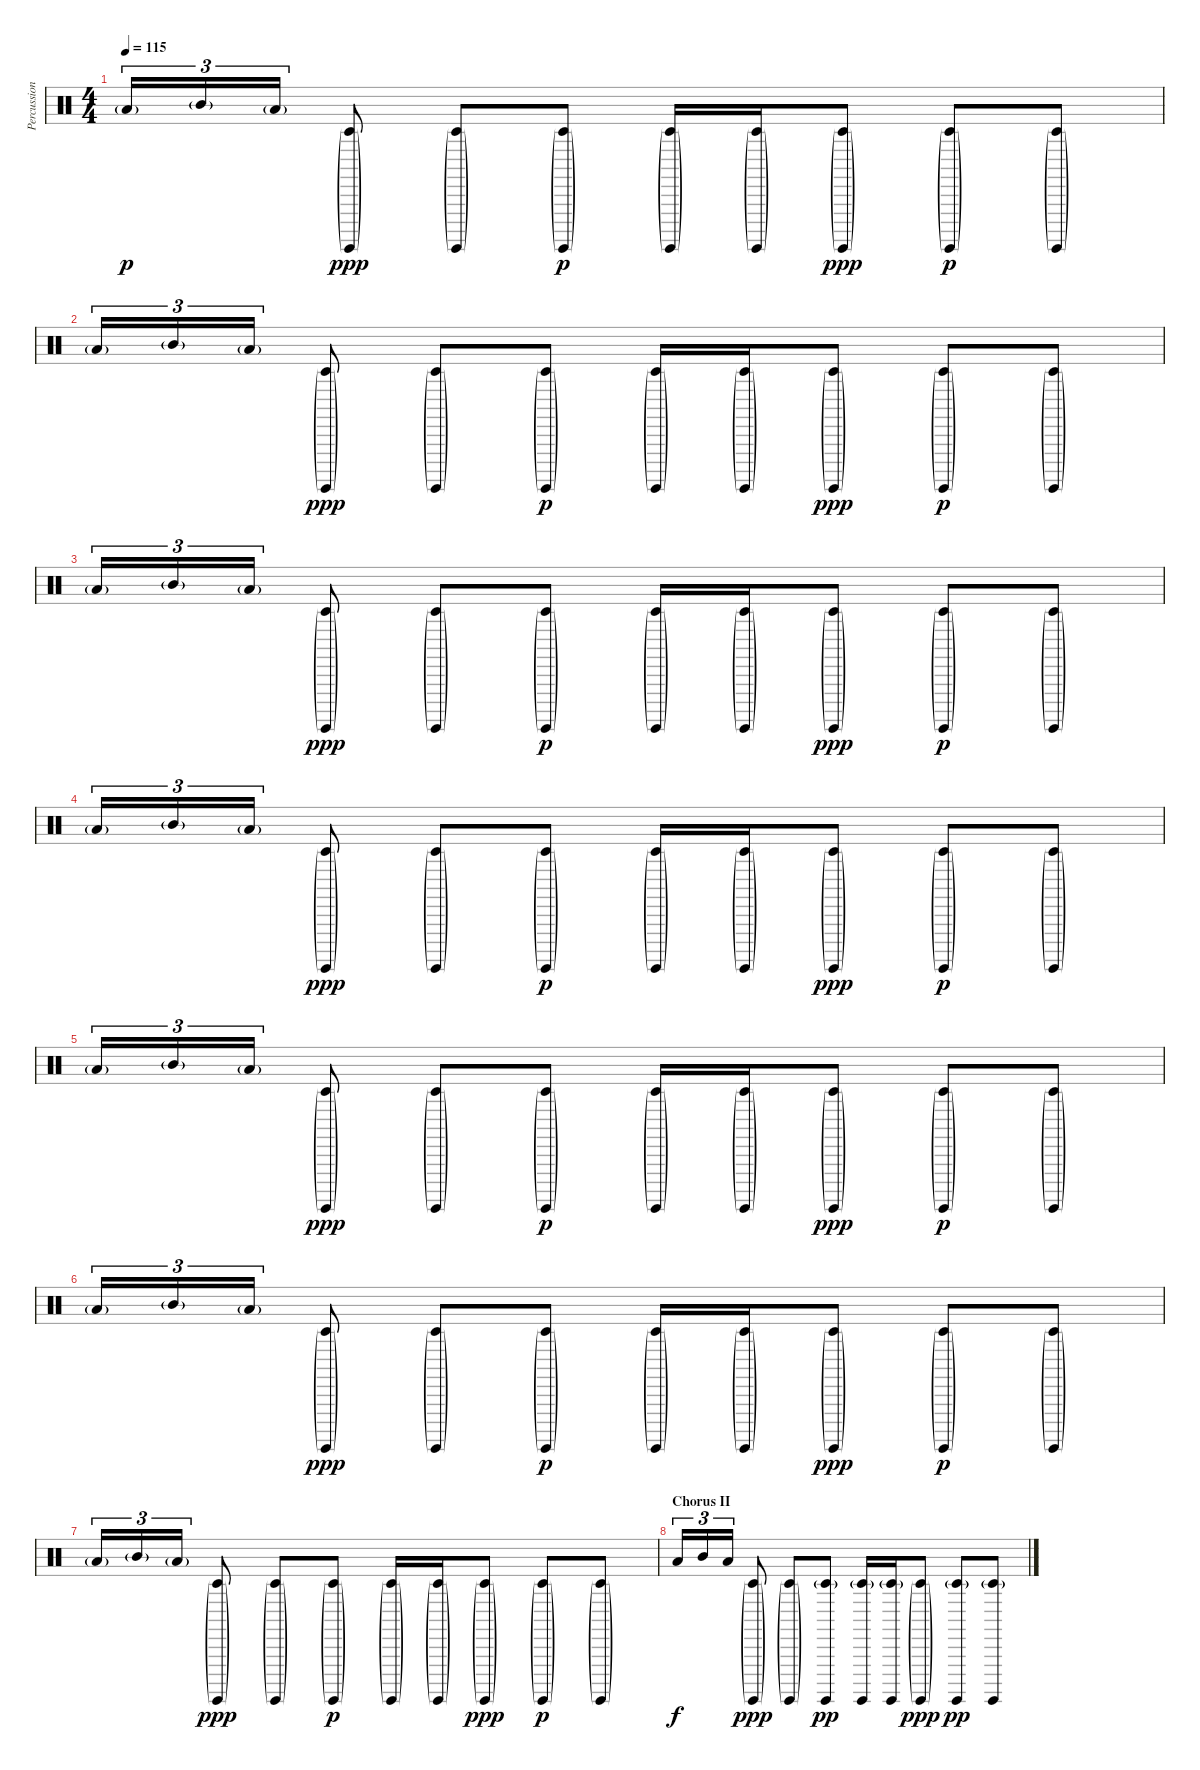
\track ("Percussion - Low Tom" "Percussion") {instrument percussion}
\staff {score}
\articulation defaults
\ts (4 4)
\tempo 115
\clef neutral
\ks c "Low Tom (hit)"{g}.16{tu (3 2) dy p} "Mid Tom (hit)"{g}.16{tu (3 2)} "Low Tom (hit)"{g}.16{tu (3 2)}
("Timbale low (hit)"{g} "Surdo (hit)"{g}).8{dy ppp} ("Timbale low (hit)"{g} "Surdo (hit)"{g}).8 ("Timbale low (hit)"{g} "Surdo (hit)"{g}).8{dy p} ("Timbale low (hit)"{g} "Surdo (hit)"{g}).16 ("Timbale low (hit)"{g} "Surdo (hit)"{g}).16 ("Timbale low (hit)"{g} "Surdo (hit)"{g}).8{dy ppp} ("Timbale low (hit)"{g} "Surdo (hit)"{g}).8{dy p} ("Timbale low (hit)"{g} "Surdo (hit)"{g}).8 |
"Low Tom (hit)"{g}.16{tu (3 2)} "Mid Tom (hit)"{g}.16{tu (3 2)} "Low Tom (hit)"{g}.16{tu (3 2)} ("Timbale low (hit)"{g} "Surdo (hit)"{g}).8{dy ppp} ("Timbale low (hit)"{g} "Surdo (hit)"{g}).8 ("Timbale low (hit)"{g} "Surdo (hit)"{g}).8{dy p} ("Timbale low (hit)"{g} "Surdo (hit)"{g}).16 ("Timbale low (hit)"{g} "Surdo (hit)"{g}).16 ("Timbale low (hit)"{g} "Surdo (hit)"{g}).8{dy ppp} ("Timbale low (hit)"{g} "Surdo (hit)"{g}).8{dy p} ("Timbale low (hit)"{g} "Surdo (hit)"{g}).8 |
"Low Tom (hit)"{g}.16{tu (3 2)} "Mid Tom (hit)"{g}.16{tu (3 2)} "Low Tom (hit)"{g}.16{tu (3 2)} ("Timbale low (hit)"{g} "Surdo (hit)"{g}).8{dy ppp} ("Timbale low (hit)"{g} "Surdo (hit)"{g}).8 ("Timbale low (hit)"{g} "Surdo (hit)"{g}).8{dy p} ("Timbale low (hit)"{g} "Surdo (hit)"{g}).16 ("Timbale low (hit)"{g} "Surdo (hit)"{g}).16 ("Timbale low (hit)"{g} "Surdo (hit)"{g}).8{dy ppp} ("Timbale low (hit)"{g} "Surdo (hit)"{g}).8{dy p} ("Timbale low (hit)"{g} "Surdo (hit)"{g}).8 |
"Low Tom (hit)"{g}.16{tu (3 2)} "Mid Tom (hit)"{g}.16{tu (3 2)} "Low Tom (hit)"{g}.16{tu (3 2)} ("Timbale low (hit)"{g} "Surdo (hit)"{g}).8{dy ppp} ("Timbale low (hit)"{g} "Surdo (hit)"{g}).8 ("Timbale low (hit)"{g} "Surdo (hit)"{g}).8{dy p} ("Timbale low (hit)"{g} "Surdo (hit)"{g}).16 ("Timbale low (hit)"{g} "Surdo (hit)"{g}).16 ("Timbale low (hit)"{g} "Surdo (hit)"{g}).8{dy ppp} ("Timbale low (hit)"{g} "Surdo (hit)"{g}).8{dy p} ("Timbale low (hit)"{g} "Surdo (hit)"{g}).8 |
"Low Tom (hit)"{g}.16{tu (3 2)} "Mid Tom (hit)"{g}.16{tu (3 2)} "Low Tom (hit)"{g}.16{tu (3 2)} ("Timbale low (hit)"{g} "Surdo (hit)"{g}).8{dy ppp} ("Timbale low (hit)"{g} "Surdo (hit)"{g}).8 ("Timbale low (hit)"{g} "Surdo (hit)"{g}).8{dy p} ("Timbale low (hit)"{g} "Surdo (hit)"{g}).16 ("Timbale low (hit)"{g} "Surdo (hit)"{g}).16 ("Timbale low (hit)"{g} "Surdo (hit)"{g}).8{dy ppp} ("Timbale low (hit)"{g} "Surdo (hit)"{g}).8{dy p} ("Timbale low (hit)"{g} "Surdo (hit)"{g}).8 |
"Low Tom (hit)"{g}.16{tu (3 2)} "Mid Tom (hit)"{g}.16{tu (3 2)} "Low Tom (hit)"{g}.16{tu (3 2)} ("Timbale low (hit)"{g} "Surdo (hit)"{g}).8{dy ppp} ("Timbale low (hit)"{g} "Surdo (hit)"{g}).8 ("Timbale low (hit)"{g} "Surdo (hit)"{g}).8{dy p} ("Timbale low (hit)"{g} "Surdo (hit)"{g}).16 ("Timbale low (hit)"{g} "Surdo (hit)"{g}).16 ("Timbale low (hit)"{g} "Surdo (hit)"{g}).8{dy ppp} ("Timbale low (hit)"{g} "Surdo (hit)"{g}).8{dy p} ("Timbale low (hit)"{g} "Surdo (hit)"{g}).8 |
"Low Tom (hit)"{g}.16{tu (3 2)} "Mid Tom (hit)"{g}.16{tu (3 2)} "Low Tom (hit)"{g}.16{tu (3 2)} ("Timbale low (hit)"{g} "Surdo (hit)"{g}).8{dy ppp} ("Timbale low (hit)"{g} "Surdo (hit)"{g}).8 ("Timbale low (hit)"{g} "Surdo (hit)"{g}).8{dy p} ("Timbale low (hit)"{g} "Surdo (hit)"{g}).16 ("Timbale low (hit)"{g} "Surdo (hit)"{g}).16 ("Timbale low (hit)"{g} "Surdo (hit)"{g}).8{dy ppp} ("Timbale low (hit)"{g} "Surdo (hit)"{g}).8{dy p} ("Timbale low (hit)"{g} "Surdo (hit)"{g}).8 |
\section ("" "Chorus II")
"Low Tom (hit)".16{tu (3 2) dy f} "Mid Tom (hit)".16{tu (3 2)} "Low Tom (hit)".16{tu (3 2)} ("Timbale low (hit)"{g} "Surdo (hit)"{g}).8{dy ppp} ("Timbale low (hit)"{g} "Surdo (hit)"{g}).8 ("Timbale low (hit)"{g} "Surdo (hit)").8{dy pp} ("Timbale low (hit)"{g} "Surdo (hit)").16 ("Timbale low (hit)"{g} "Surdo (hit)").16 ("Timbale low (hit)"{g} "Surdo (hit)"{g}).8{dy ppp} ("Timbale low (hit)"{g} "Surdo (hit)").8{dy pp} ("Timbale low (hit)"{g} "Surdo (hit)").8
